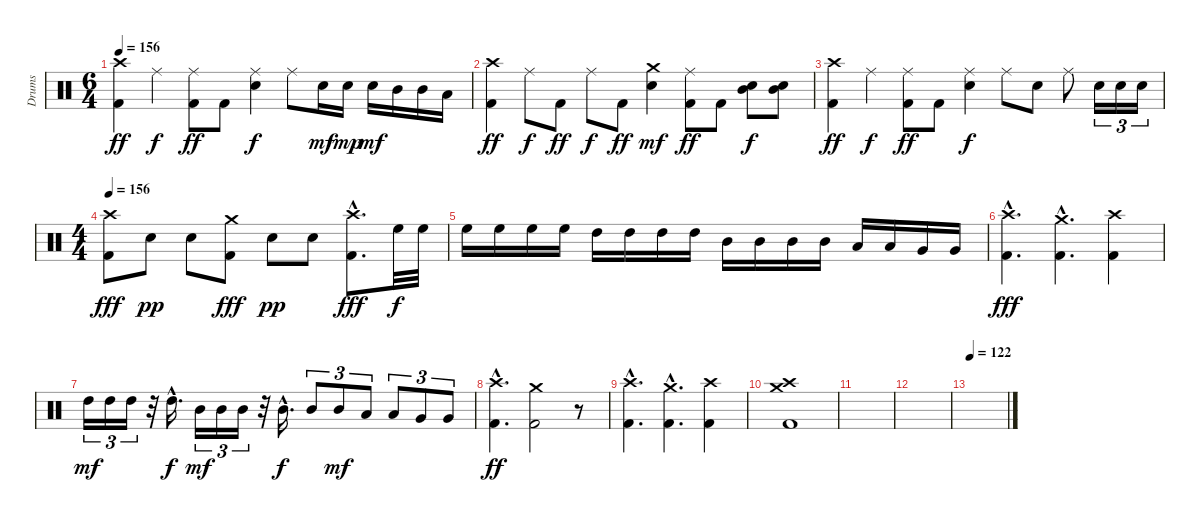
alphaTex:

\track ("Drums" "Drums") {instrument percussion}
\staff {score}
\articulation defaults
\ts (6 4)
\tempo 156
\clef neutral
\ks c
("Crash high (hit)" "Kick (hit) 2").4{dy ff} "Ride (middle)".4{dy f} ("Ride (middle)" "Kick (hit) 2").8{dy ff} "Kick (hit) 2".8 ("Ride (middle)" "Electric Snare (hit)").4{dy f} "Ride (middle)".8 "Electric Snare (hit)".16{dy mf} "Electric Snare (hit)".16{dy mp} "Electric Snare (hit)".16{dy mf} "Mid Tom (hit)".16 "Mid Tom (hit)".16 "Low Tom (hit)".16 |
("Crash high (hit)" "Kick (hit) 2").4{dy ff} "Ride (middle)".8{dy f} "Kick (hit) 2".8{dy ff} "Ride (middle)".8{dy f} "Kick (hit) 2".8{dy ff} ("Crash medium (hit)" "Electric Snare (hit)").4{dy mf} ("Ride (middle)" "Kick (hit) 2").8{dy ff} "Kick (hit) 2".8 ("Electric Snare (hit)" "Mid Tom (hit)").8{dy f} ("Electric Snare (hit)" "Mid Tom (hit)").8 |
("Crash high (hit)" "Kick (hit) 2").4{dy ff} "Ride (middle)".4{dy f} ("Ride (middle)" "Kick (hit) 2").8{dy ff} "Kick (hit) 2".8 ("Ride (middle)" "Electric Snare (hit)").4{dy f} "Ride (middle)".8 "Electric Snare (hit)".8 "Ride (middle)".8 "Electric Snare (hit)".16{tu (3 2)} "Electric Snare (hit)".16{tu (3 2)} "Electric Snare (hit)".16{tu (3 2)} |
\ts (4 4)
\tempo 156
("Crash high (hit)" "Kick (hit) 2").8{dy fff} "Electric Snare (hit)".8{dy pp} "Electric Snare (hit)".8 ("Crash medium (hit)" "Kick (hit) 2").8{dy fff} "Electric Snare (hit)".8{dy pp} "Electric Snare (hit)".8 ("Crash high (hit)"{hac} "Kick (hit) 2"{hac}).8{d dy fff} "High Floor Tom (hit)".32{dy f} "High Floor Tom (hit)".32 |
"High Floor Tom (hit)".16 "High Floor Tom (hit)".16 "High Floor Tom (hit)".16 "High Floor Tom (hit)".16 "High Tom (hit)".16 "High Tom (hit)".16 "High Tom (hit)".16 "High Tom (hit)".16 "Mid Tom (hit)".16 "Mid Tom (hit)".16 "Mid Tom (hit)".16 "Mid Tom (hit)".16 "Low Tom (hit)".16 "Low Tom (hit)".16 "Very Low Tom (hit)".16 "Very Low Tom (hit)".16 |
("Crash high (hit)"{hac} "Kick (hit) 2"{hac}).4{d dy fff} ("Crash medium (hit)"{hac} "Kick (hit) 2"{hac}).4{d} ("Crash high (hit)" "Kick (hit) 2").4 |
"High Tom (hit)".16{tu (3 2) dy mf} "High Tom (hit)".16{tu (3 2)} "High Tom (hit)".16{tu (3 2)} r.32 "High Tom (hit)"{hac}.16{d dy f} "Mid Tom (hit)".16{tu (3 2) dy mf} "Mid Tom (hit)".16{tu (3 2)} "Mid Tom (hit)".16{tu (3 2)} r.32 "Mid Tom (hit)"{hac}.16{d dy f} "Mid Tom (hit)".8{tu (3 2)} "Mid Tom (hit)".8{tu (3 2) dy mf} "Low Tom (hit)".8{tu (3 2)} "Low Tom (hit)".8{tu (3 2)} "Very Low Tom (hit)".8{tu (3 2)} "Very Low Tom (hit)".8{tu (3 2)} |
("Crash high (hit)"{hac} "Kick (hit) 2"{hac}).4{d dy ff} ("Crash medium (hit)" "Kick (hit) 2").2 r.8 |
("Crash high (hit)"{hac} "Kick (hit) 2"{hac}).4{d} ("Crash medium (hit)"{hac} "Kick (hit) 2"{hac}).4{d} ("Crash high (hit)" "Kick (hit) 2").4 |
("Crash high (hit)" "Crash medium (hit)" "Kick (hit) 2").1 |
|
|
\tempo 122
